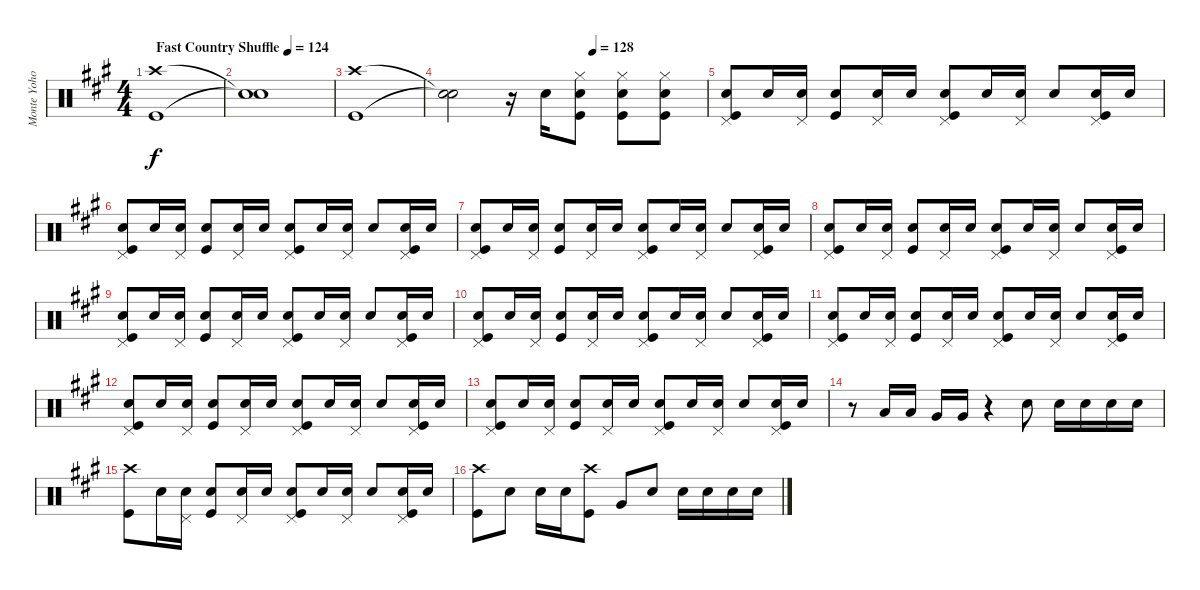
\track ("Monte Yoho Drums" "Monte Yoho") {instrument percussion}
\staff {score}
\articulation defaults
\ts (4 4)
\tempo (124 "Fast Country Shuffle")
\clef neutral
\ks a
("Crash high (hit)" "Kick (hit)").1{dy f} |
("Snare (hit)"{t} "Snare (hit)"{t}).1 |
("Crash high (hit)" "Kick (hit)").1 |
\tempo (128 0.5625)
("Snare (hit)"{t} "Snare (hit)"{t}).2 r.16 "Snare (hit) 2".16 ("Hi-Hat (closed)" "Snare (hit) 2" "Kick (hit)").8 ("Hi-Hat (closed)" "Snare (hit) 2" "Kick (hit)").8 ("Hi-Hat (closed)" "Snare (hit) 2" "Kick (hit)").8 |
("Pedal Hi-Hat (hit)" "Snare (hit) 2" "Kick (hit)").8 "Snare (hit) 2".16 ("Pedal Hi-Hat (hit)" "Snare (hit) 2").16 ("Snare (hit) 2" "Kick (hit)").8 ("Pedal Hi-Hat (hit)" "Snare (hit) 2").16 "Snare (hit) 2".16 ("Pedal Hi-Hat (hit)" "Snare (hit) 2" "Kick (hit)").8 "Snare (hit) 2".16 ("Pedal Hi-Hat (hit)" "Snare (hit) 2").16 "Snare (hit) 2".8 ("Pedal Hi-Hat (hit)" "Snare (hit) 2" "Kick (hit)").16 "Snare (hit) 2".16 |
("Pedal Hi-Hat (hit)" "Snare (hit) 2" "Kick (hit)").8 "Snare (hit) 2".16 ("Pedal Hi-Hat (hit)" "Snare (hit) 2").16 ("Snare (hit) 2" "Kick (hit)").8 ("Pedal Hi-Hat (hit)" "Snare (hit) 2").16 "Snare (hit) 2".16 ("Pedal Hi-Hat (hit)" "Snare (hit) 2" "Kick (hit)").8 "Snare (hit) 2".16 ("Pedal Hi-Hat (hit)" "Snare (hit) 2").16 "Snare (hit) 2".8 ("Pedal Hi-Hat (hit)" "Snare (hit) 2" "Kick (hit)").16 "Snare (hit) 2".16 |
("Pedal Hi-Hat (hit)" "Snare (hit) 2" "Kick (hit)").8 "Snare (hit) 2".16 ("Pedal Hi-Hat (hit)" "Snare (hit) 2").16 ("Snare (hit) 2" "Kick (hit)").8 ("Pedal Hi-Hat (hit)" "Snare (hit) 2").16 "Snare (hit) 2".16 ("Pedal Hi-Hat (hit)" "Snare (hit) 2" "Kick (hit)").8 "Snare (hit) 2".16 ("Pedal Hi-Hat (hit)" "Snare (hit) 2").16 "Snare (hit) 2".8 ("Pedal Hi-Hat (hit)" "Snare (hit) 2" "Kick (hit)").16 "Snare (hit) 2".16 |
("Pedal Hi-Hat (hit)" "Snare (hit) 2" "Kick (hit)").8 "Snare (hit) 2".16 ("Pedal Hi-Hat (hit)" "Snare (hit) 2").16 ("Snare (hit) 2" "Kick (hit)").8 ("Pedal Hi-Hat (hit)" "Snare (hit) 2").16 "Snare (hit) 2".16 ("Pedal Hi-Hat (hit)" "Snare (hit) 2" "Kick (hit)").8 "Snare (hit) 2".16 ("Pedal Hi-Hat (hit)" "Snare (hit) 2").16 "Snare (hit) 2".8 ("Pedal Hi-Hat (hit)" "Snare (hit) 2" "Kick (hit)").16 "Snare (hit) 2".16 |
("Pedal Hi-Hat (hit)" "Snare (hit) 2" "Kick (hit)").8 "Snare (hit) 2".16 ("Pedal Hi-Hat (hit)" "Snare (hit) 2").16 ("Snare (hit) 2" "Kick (hit)").8 ("Pedal Hi-Hat (hit)" "Snare (hit) 2").16 "Snare (hit) 2".16 ("Pedal Hi-Hat (hit)" "Snare (hit) 2" "Kick (hit)").8 "Snare (hit) 2".16 ("Pedal Hi-Hat (hit)" "Snare (hit) 2").16 "Snare (hit) 2".8 ("Pedal Hi-Hat (hit)" "Snare (hit) 2" "Kick (hit)").16 "Snare (hit) 2".16 |
("Pedal Hi-Hat (hit)" "Snare (hit) 2" "Kick (hit)").8 "Snare (hit) 2".16 ("Pedal Hi-Hat (hit)" "Snare (hit) 2").16 ("Snare (hit) 2" "Kick (hit)").8 ("Pedal Hi-Hat (hit)" "Snare (hit) 2").16 "Snare (hit) 2".16 ("Pedal Hi-Hat (hit)" "Snare (hit) 2" "Kick (hit)").8 "Snare (hit) 2".16 ("Pedal Hi-Hat (hit)" "Snare (hit) 2").16 "Snare (hit) 2".8 ("Pedal Hi-Hat (hit)" "Snare (hit) 2" "Kick (hit)").16 "Snare (hit) 2".16 |
("Pedal Hi-Hat (hit)" "Snare (hit) 2" "Kick (hit)").8 "Snare (hit) 2".16 ("Pedal Hi-Hat (hit)" "Snare (hit) 2").16 ("Snare (hit) 2" "Kick (hit)").8 ("Pedal Hi-Hat (hit)" "Snare (hit) 2").16 "Snare (hit) 2".16 ("Pedal Hi-Hat (hit)" "Snare (hit) 2" "Kick (hit)").8 "Snare (hit) 2".16 ("Pedal Hi-Hat (hit)" "Snare (hit) 2").16 "Snare (hit) 2".8 ("Pedal Hi-Hat (hit)" "Snare (hit) 2" "Kick (hit)").16 "Snare (hit) 2".16 |
("Pedal Hi-Hat (hit)" "Snare (hit) 2" "Kick (hit)").8 "Snare (hit) 2".16 ("Pedal Hi-Hat (hit)" "Snare (hit) 2").16 ("Snare (hit) 2" "Kick (hit)").8 ("Pedal Hi-Hat (hit)" "Snare (hit) 2").16 "Snare (hit) 2".16 ("Pedal Hi-Hat (hit)" "Snare (hit) 2" "Kick (hit)").8 "Snare (hit) 2".16 ("Pedal Hi-Hat (hit)" "Snare (hit) 2").16 "Snare (hit) 2".8 ("Pedal Hi-Hat (hit)" "Snare (hit) 2" "Kick (hit)").16 "Snare (hit) 2".16 |
("Pedal Hi-Hat (hit)" "Snare (hit) 2" "Kick (hit)").8 "Snare (hit) 2".16 ("Pedal Hi-Hat (hit)" "Snare (hit) 2").16 ("Snare (hit) 2" "Kick (hit)").8 ("Pedal Hi-Hat (hit)" "Snare (hit) 2").16 "Snare (hit) 2".16 ("Pedal Hi-Hat (hit)" "Snare (hit) 2" "Kick (hit)").8 "Snare (hit) 2".16 ("Pedal Hi-Hat (hit)" "Snare (hit) 2").16 "Snare (hit) 2".8 ("Pedal Hi-Hat (hit)" "Snare (hit) 2" "Kick (hit)").16 "Snare (hit) 2".16 |
r.8 "Low Tom (hit)".16 "Low Tom (hit)".16 "Very Low Tom (hit)".16 "Very Low Tom (hit)".16 r.4 "Snare (hit) 2".8 "Snare (hit) 2".16 "Snare (hit) 2".16 "Snare (hit) 2".16 "Snare (hit) 2".16 |
("Crash high (hit)" "Kick (hit)").8 "Snare (hit) 2".16 ("Pedal Hi-Hat (hit)" "Snare (hit) 2").16 ("Snare (hit) 2" "Kick (hit)").8 ("Pedal Hi-Hat (hit)" "Snare (hit) 2").16 "Snare (hit) 2".16 ("Pedal Hi-Hat (hit)" "Snare (hit) 2" "Kick (hit)").8 "Snare (hit) 2".16 ("Pedal Hi-Hat (hit)" "Snare (hit) 2").16 "Snare (hit) 2".8 ("Pedal Hi-Hat (hit)" "Snare (hit) 2" "Kick (hit)").16 "Snare (hit) 2".16 |
("Crash high (hit)" "Kick (hit)").8 "Snare (hit) 2".8 "Snare (hit) 2".16 "Snare (hit) 2".16 ("Crash high (hit)" "Kick (hit)").8 "Very Low Tom (hit)".8 "Snare (hit) 2".8 "Snare (hit) 2".16 "Snare (hit) 2".16 "Snare (hit) 2".16 "Snare (hit) 2".16
